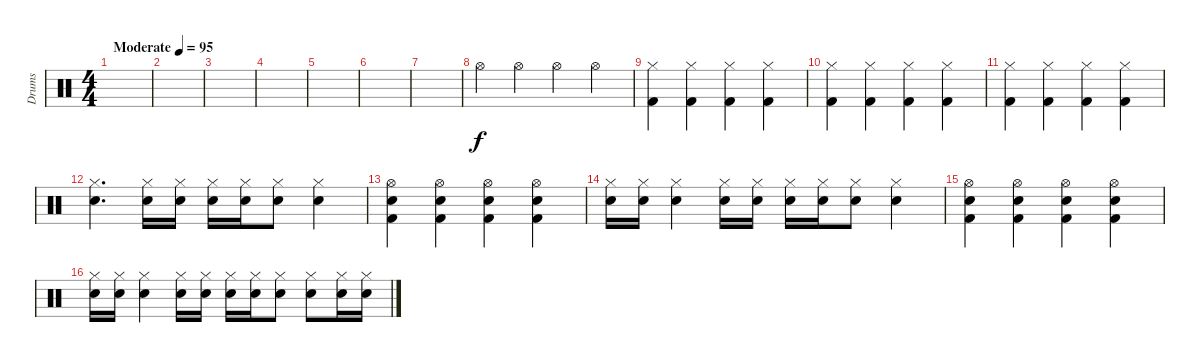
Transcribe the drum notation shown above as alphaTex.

\track ("Drums" "Drums") {instrument percussion}
\staff {score}
\articulation defaults
\ts (4 4)
\tempo (95 "Moderate")
\clef neutral
\ks c
|
|
|
|
|
|
|
"Hi-Hat (open)".4 "Hi-Hat (open)".4 "Hi-Hat (open)".4 "Hi-Hat (open)".4 |
("Hi-Hat (closed)" "Kick (hit) 2").4 ("Hi-Hat (closed)" "Kick (hit) 2").4 ("Hi-Hat (closed)" "Kick (hit) 2").4 ("Hi-Hat (closed)" "Kick (hit) 2").4 |
("Hi-Hat (closed)" "Kick (hit) 2").4 ("Hi-Hat (closed)" "Kick (hit) 2").4 ("Hi-Hat (closed)" "Kick (hit) 2").4 ("Hi-Hat (closed)" "Kick (hit) 2").4 |
("Hi-Hat (closed)" "Kick (hit) 2").4 ("Hi-Hat (closed)" "Kick (hit) 2").4 ("Hi-Hat (closed)" "Kick (hit) 2").4 ("Hi-Hat (closed)" "Kick (hit) 2").4 |
("Hi-Hat (closed)" "Snare (hit) 2").4{d} ("Hi-Hat (closed)" "Snare (hit) 2").16 ("Hi-Hat (closed)" "Snare (hit) 2").16 ("Hi-Hat (closed)" "Snare (hit) 2").16 ("Hi-Hat (closed)" "Snare (hit) 2").16 ("Hi-Hat (closed)" "Snare (hit) 2").8 ("Hi-Hat (closed)" "Snare (hit) 2").4 |
("Hi-Hat (open)" "Snare (hit) 2" "Kick (hit) 2").4 ("Hi-Hat (open)" "Snare (hit) 2" "Kick (hit) 2").4 ("Hi-Hat (open)" "Snare (hit) 2" "Kick (hit) 2").4 ("Hi-Hat (open)" "Snare (hit) 2" "Kick (hit) 2").4 |
("Hi-Hat (closed)" "Snare (hit) 2").16 ("Hi-Hat (closed)" "Snare (hit) 2").16 ("Hi-Hat (closed)" "Snare (hit) 2").4 ("Hi-Hat (closed)" "Snare (hit) 2").16 ("Hi-Hat (closed)" "Snare (hit) 2").16 ("Hi-Hat (closed)" "Snare (hit) 2").16 ("Hi-Hat (closed)" "Snare (hit) 2").16 ("Hi-Hat (closed)" "Snare (hit) 2").8 ("Hi-Hat (closed)" "Snare (hit) 2").4 |
("Hi-Hat (open)" "Snare (hit) 2" "Kick (hit) 2").4 ("Hi-Hat (open)" "Snare (hit) 2" "Kick (hit) 2").4 ("Hi-Hat (open)" "Snare (hit) 2" "Kick (hit) 2").4 ("Hi-Hat (open)" "Snare (hit) 2" "Kick (hit) 2").4 |
("Hi-Hat (closed)" "Snare (hit) 2").16 ("Hi-Hat (closed)" "Snare (hit) 2").16 ("Hi-Hat (closed)" "Snare (hit) 2").4 ("Hi-Hat (closed)" "Snare (hit) 2").16 ("Hi-Hat (closed)" "Snare (hit) 2").16 ("Hi-Hat (closed)" "Snare (hit) 2").16 ("Hi-Hat (closed)" "Snare (hit) 2").16 ("Hi-Hat (closed)" "Snare (hit) 2").8 ("Hi-Hat (closed)" "Snare (hit) 2").8 ("Hi-Hat (closed)" "Snare (hit) 2").16 ("Hi-Hat (closed)" "Snare (hit) 2").16
